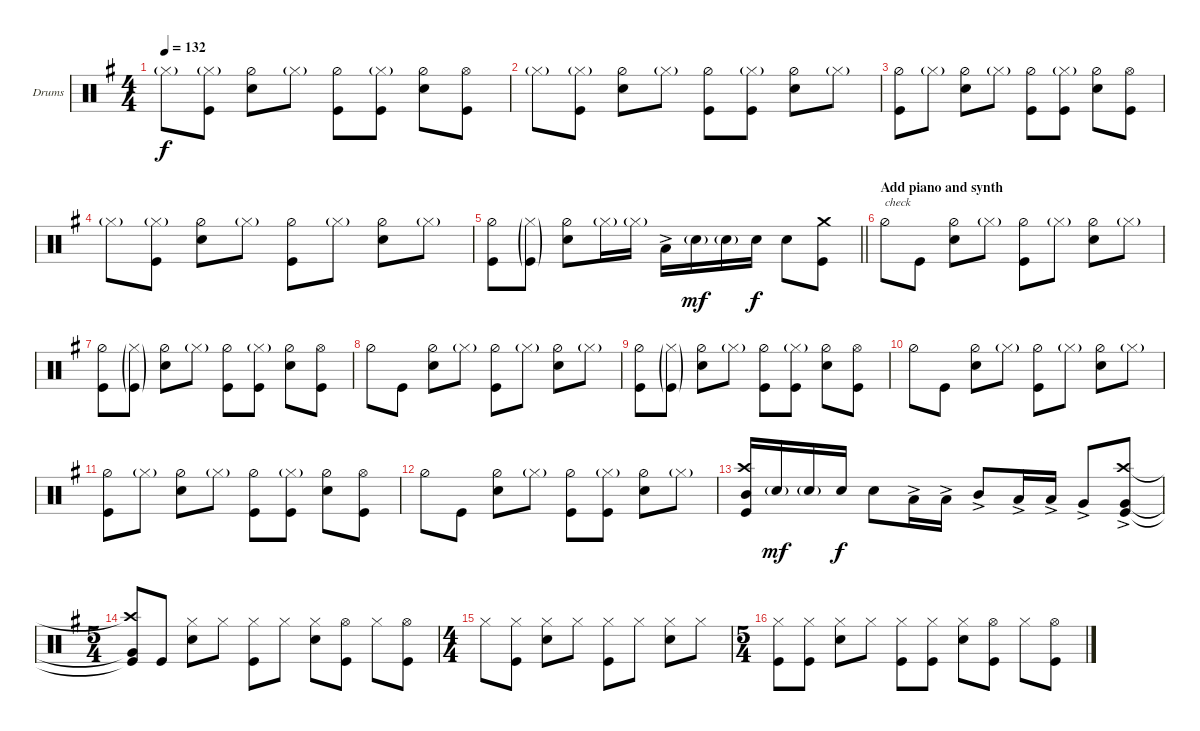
\bracketExtendMode groupsimilarinstruments
\firstSystemTrackNameOrientation horizontal
\otherSystemsTrackNameOrientation horizontal
\track ("Drumkit" "Drums") {instrument percussion}
\staff {score}
\articulation defaults
\ts (4 4)
\tempo 132
\clef neutral
\scale
0.333333
\ks g "Hi-Hat (closed)"{g}.8{dy f}
("Hi-Hat (closed)"{g} "Kick (hit)").8 ("Hi-Hat (half)" "Snare (hit) 2").8 "Hi-Hat (closed)"{g}.8 ("Hi-Hat (half)" "Kick (hit)").8 ("Hi-Hat (closed)"{g} "Kick (hit)").8 ("Hi-Hat (half)" "Snare (hit) 2").8 ("Kick (hit)" "Hi-Hat (open)").8 |
\scale
0.333333 "Hi-Hat (closed)"{g}.8 ("Hi-Hat (closed)"{g} "Kick (hit)").8 ("Hi-Hat (half)" "Snare (hit) 2").8 "Hi-Hat (closed)"{g}.8 ("Hi-Hat (half)" "Kick (hit)").8 ("Hi-Hat (closed)"{g} "Kick (hit)").8 ("Hi-Hat (half)" "Snare (hit) 2").8 "Hi-Hat (closed)"{g}.8 |
\scale
0.333333 ("Hi-Hat (half)" "Kick (hit)").8 "Hi-Hat (closed)"{g}.8 ("Hi-Hat (half)" "Snare (hit) 2").8 "Hi-Hat (closed)"{g}.8 ("Hi-Hat (half)" "Kick (hit)").8 ("Hi-Hat (closed)"{g} "Kick (hit)").8 ("Hi-Hat (half)" "Snare (hit) 2").8 ("Kick (hit)" "Hi-Hat (open)").8 |
\scale
0.333333 "Hi-Hat (closed)"{g}.8 ("Hi-Hat (closed)"{g} "Kick (hit)").8 ("Hi-Hat (half)" "Snare (hit) 2").8 "Hi-Hat (closed)"{g}.8 ("Hi-Hat (half)" "Kick (hit)").8 "Hi-Hat (closed)"{g}.8 ("Hi-Hat (half)" "Snare (hit) 2").8 "Hi-Hat (closed)"{g}.8 |
\scale
0.333333
\barLineRight lightlight
("Hi-Hat (half)" "Kick (hit)").8 ("Hi-Hat (closed)"{g} "Kick (hit)"{g}).8 ("Hi-Hat (half)" "Snare (hit) 2").8 "Hi-Hat (closed)"{g}.16 "Hi-Hat (closed)"{g}.16 "Low Tom (hit)"{ac}.16 "Snare (hit) 2"{g}.16{dy mf} "Snare (hit) 2"{g}.16 "Snare (hit) 2".16{dy f} "Snare (hit) 2".8 ("Kick (hit)" "Crash medium (hit)").8 |
\section ("" "Add piano and synth")
\scale
0.333333 "Hi-Hat (half)".8{txt "check"} "Kick (hit)".8 ("Hi-Hat (half)" "Snare (hit) 2").8 "Hi-Hat (closed)"{g}.8 ("Hi-Hat (half)" "Kick (hit)").8 "Hi-Hat (closed)"{g}.8 ("Hi-Hat (half)" "Snare (hit) 2").8 "Hi-Hat (closed)"{g}.8 |
\scale
0.333333 ("Hi-Hat (half)" "Kick (hit)").8 ("Hi-Hat (closed)"{g} "Kick (hit)"{g}).8 ("Hi-Hat (half)" "Snare (hit) 2").8 "Hi-Hat (closed)"{g}.8 ("Hi-Hat (half)" "Kick (hit)").8 ("Hi-Hat (closed)"{g} "Kick (hit)").8 ("Hi-Hat (half)" "Snare (hit) 2").8 ("Kick (hit)" "Hi-Hat (open)").8 |
\scale
0.333333 "Hi-Hat (half)".8 "Kick (hit)".8 ("Hi-Hat (half)" "Snare (hit) 2").8 "Hi-Hat (closed)"{g}.8 ("Hi-Hat (half)" "Kick (hit)").8 "Hi-Hat (closed)"{g}.8 ("Hi-Hat (half)" "Snare (hit) 2").8 "Hi-Hat (closed)"{g}.8 |
\scale
0.333333 ("Hi-Hat (half)" "Kick (hit)").8 ("Hi-Hat (closed)"{g} "Kick (hit)"{g}).8 ("Hi-Hat (half)" "Snare (hit) 2").8 "Hi-Hat (closed)"{g}.8 ("Hi-Hat (half)" "Kick (hit)").8 ("Hi-Hat (closed)"{g} "Kick (hit)").8 ("Hi-Hat (half)" "Snare (hit) 2").8 ("Kick (hit)" "Hi-Hat (open)").8 |
\scale
0.333333 "Hi-Hat (half)".8 "Kick (hit)".8 ("Hi-Hat (half)" "Snare (hit) 2").8 "Hi-Hat (closed)"{g}.8 ("Hi-Hat (half)" "Kick (hit)").8 "Hi-Hat (closed)"{g}.8 ("Hi-Hat (half)" "Snare (hit) 2").8 "Hi-Hat (closed)"{g}.8 |
\scale
0.333333 ("Hi-Hat (half)" "Kick (hit)").8 "Hi-Hat (closed)"{g}.8 ("Hi-Hat (half)" "Snare (hit) 2").8 "Hi-Hat (closed)"{g}.8 ("Hi-Hat (half)" "Kick (hit)").8 ("Hi-Hat (closed)"{g} "Kick (hit)").8 ("Hi-Hat (half)" "Snare (hit) 2").8 ("Kick (hit)" "Hi-Hat (open)").8 |
\scale
0.333333 "Hi-Hat (half)".8 "Kick (hit)".8 ("Hi-Hat (half)" "Snare (hit) 2").8 "Hi-Hat (closed)"{g}.8 ("Hi-Hat (half)" "Kick (hit)").8 ("Hi-Hat (closed)"{g} "Kick (hit)").8 ("Hi-Hat (half)" "Snare (hit) 2").8 "Hi-Hat (closed)"{g}.8 |
\scale
0.333333 ("Kick (hit)" "Crash high (hit)" "Mid Tom (hit)").16 "Snare (hit) 2"{g}.16{dy mf} "Snare (hit) 2"{g}.16 "Snare (hit) 2".16{dy f} "Snare (hit) 2".8 "Low Tom (hit)"{ac}.16 "Low Tom (hit)"{ac}.16 "Mid Tom (hit)"{ac}.8 "Low Tom (hit)"{ac}.16 "Low Tom (hit)"{ac}.16 "Very Low Tom (hit)"{ac}.8 ("Very Low Tom (hit)"{ac} "Kick (hit)" "Crash high (hit)").8 |
\ts (5 4)
\scale
0.333333 ("Very Low Tom (hit)"{t} "Kick (hit)"{t} "Crash high (hit)"{t}).8 "Kick (hit)".8 ("Snare (hit) 2" "Hi-Hat (closed)").8 "Hi-Hat (closed)".8 ("Hi-Hat (closed)" "Kick (hit)").8 "Hi-Hat (closed)".8 ("Hi-Hat (closed)" "Snare (hit) 2").8 ("Hi-Hat (open)" "Kick (hit)").8 "Hi-Hat (closed)".8 ("Hi-Hat (open)" "Kick (hit)").8 |
\ts (4 4)
\scale
0.333333 "Hi-Hat (closed)".8 ("Kick (hit)" "Hi-Hat (closed)").8 ("Snare (hit) 2" "Hi-Hat (closed)").8 "Hi-Hat (closed)".8 ("Hi-Hat (closed)" "Kick (hit)").8 "Hi-Hat (closed)".8 ("Hi-Hat (closed)" "Snare (hit) 2").8 "Hi-Hat (closed)".8 |
\ts (5 4)
\scale
0.333333 ("Kick (hit)" "Hi-Hat (closed)").8 ("Kick (hit)" "Hi-Hat (closed)").8 ("Snare (hit) 2" "Hi-Hat (closed)").8 "Hi-Hat (closed)".8 ("Hi-Hat (closed)" "Kick (hit)").8 ("Hi-Hat (closed)" "Kick (hit)").8 ("Hi-Hat (closed)" "Snare (hit) 2").8 ("Hi-Hat (open)" "Kick (hit)").8 "Hi-Hat (closed)".8 ("Hi-Hat (open)" "Kick (hit)").8
